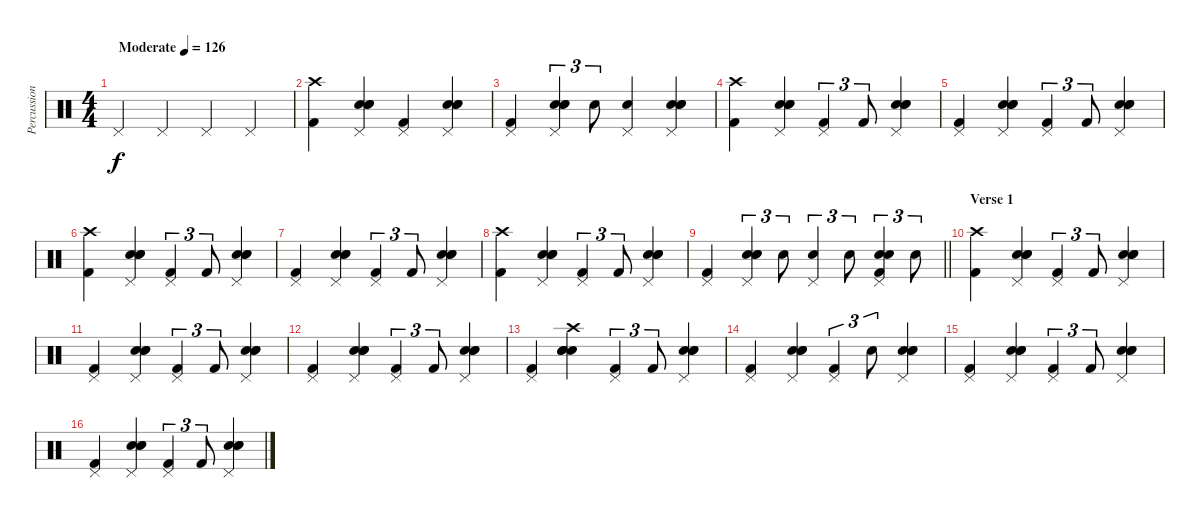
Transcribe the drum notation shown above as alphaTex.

\track ("Percussion" "Percussion") {instrument percussion}
\staff {score}
\articulation defaults
\ts (4 4)
\tempo (126 "Moderate")
\clef neutral
\ks c "Pedal Hi-Hat (hit)".4{dy f} "Pedal Hi-Hat (hit)".4 "Pedal Hi-Hat (hit)".4 "Pedal Hi-Hat (hit)".4
|
("Crash high (hit)" "Kick (hit) 2").4 ("Pedal Hi-Hat (hit)" "Electric Snare (hit)" "Hand Clap (hit)" "Hand Clap (hit)").4 ("Pedal Hi-Hat (hit)" "Kick (hit) 2").4 ("Pedal Hi-Hat (hit)" "Electric Snare (hit)" "Hand Clap (hit)" "Hand Clap (hit)").4 |
("Pedal Hi-Hat (hit)" "Kick (hit) 2").4 ("Pedal Hi-Hat (hit)" "Electric Snare (hit)" "Hand Clap (hit)" "Hand Clap (hit)").4{tu (3 2)} "Electric Snare (hit)".8{tu (3 2)} ("Pedal Hi-Hat (hit)" "Electric Snare (hit)").4 ("Pedal Hi-Hat (hit)" "Electric Snare (hit)" "Hand Clap (hit)" "Hand Clap (hit)").4 |
("Crash high (hit)" "Kick (hit) 2").4 ("Pedal Hi-Hat (hit)" "Electric Snare (hit)" "Hand Clap (hit)" "Hand Clap (hit)").4 ("Pedal Hi-Hat (hit)" "Kick (hit) 2").4{tu (3 2)} "Kick (hit) 2".8{tu (3 2)} ("Pedal Hi-Hat (hit)" "Electric Snare (hit)" "Hand Clap (hit)" "Hand Clap (hit)").4 |
("Pedal Hi-Hat (hit)" "Kick (hit) 2").4 ("Pedal Hi-Hat (hit)" "Electric Snare (hit)" "Hand Clap (hit)" "Hand Clap (hit)").4 ("Pedal Hi-Hat (hit)" "Kick (hit) 2").4{tu (3 2)} "Kick (hit) 2".8{tu (3 2)} ("Pedal Hi-Hat (hit)" "Electric Snare (hit)" "Hand Clap (hit)" "Hand Clap (hit)").4 |
("Crash high (hit)" "Kick (hit) 2").4 ("Pedal Hi-Hat (hit)" "Electric Snare (hit)" "Hand Clap (hit)" "Hand Clap (hit)").4 ("Pedal Hi-Hat (hit)" "Kick (hit) 2").4{tu (3 2)} "Kick (hit) 2".8{tu (3 2)} ("Pedal Hi-Hat (hit)" "Electric Snare (hit)" "Hand Clap (hit)" "Hand Clap (hit)").4 |
("Pedal Hi-Hat (hit)" "Kick (hit) 2").4 ("Pedal Hi-Hat (hit)" "Electric Snare (hit)" "Hand Clap (hit)" "Hand Clap (hit)").4 ("Pedal Hi-Hat (hit)" "Kick (hit) 2").4{tu (3 2)} "Kick (hit) 2".8{tu (3 2)} ("Pedal Hi-Hat (hit)" "Electric Snare (hit)" "Hand Clap (hit)" "Hand Clap (hit)").4 |
("Crash high (hit)" "Kick (hit) 2").4 ("Pedal Hi-Hat (hit)" "Electric Snare (hit)" "Hand Clap (hit)" "Hand Clap (hit)").4 ("Pedal Hi-Hat (hit)" "Kick (hit) 2").4{tu (3 2)} "Kick (hit) 2".8{tu (3 2)} ("Pedal Hi-Hat (hit)" "Electric Snare (hit)" "Hand Clap (hit)" "Hand Clap (hit)").4 |
\barLineRight lightlight
("Pedal Hi-Hat (hit)" "Kick (hit) 2").4 ("Pedal Hi-Hat (hit)" "Electric Snare (hit)" "Hand Clap (hit)" "Hand Clap (hit)").4{tu (3 2)} "Electric Snare (hit)".8{tu (3 2)} ("Pedal Hi-Hat (hit)" "Electric Snare (hit)").4{tu (3 2)} "Electric Snare (hit)".8{tu (3 2)} ("Pedal Hi-Hat (hit)" "Kick (hit) 2" "Hand Clap (hit)" "Hand Clap (hit)").4{tu (3 2)} "Electric Snare (hit)".8{tu (3 2)} |
\section ("" "Verse 1")
("Crash high (hit)" "Kick (hit) 2").4 ("Pedal Hi-Hat (hit)" "Electric Snare (hit)" "Hand Clap (hit)" "Hand Clap (hit)").4 ("Pedal Hi-Hat (hit)" "Kick (hit) 2").4{tu (3 2)} "Kick (hit) 2".8{tu (3 2)} ("Pedal Hi-Hat (hit)" "Electric Snare (hit)" "Hand Clap (hit)" "Hand Clap (hit)").4 |
("Pedal Hi-Hat (hit)" "Kick (hit) 2").4 ("Pedal Hi-Hat (hit)" "Electric Snare (hit)" "Hand Clap (hit)" "Hand Clap (hit)").4 ("Pedal Hi-Hat (hit)" "Kick (hit) 2").4{tu (3 2)} "Kick (hit) 2".8{tu (3 2)} ("Pedal Hi-Hat (hit)" "Electric Snare (hit)" "Hand Clap (hit)" "Hand Clap (hit)").4 |
("Pedal Hi-Hat (hit)" "Kick (hit) 2").4 ("Pedal Hi-Hat (hit)" "Electric Snare (hit)" "Hand Clap (hit)" "Hand Clap (hit)").4 ("Pedal Hi-Hat (hit)" "Kick (hit) 2").4{tu (3 2)} "Kick (hit) 2".8{tu (3 2)} ("Pedal Hi-Hat (hit)" "Electric Snare (hit)" "Hand Clap (hit)" "Hand Clap (hit)").4 |
("Pedal Hi-Hat (hit)" "Kick (hit) 2").4 ("Crash high (hit)" "Electric Snare (hit)" "Hand Clap (hit)" "Hand Clap (hit)").4 ("Pedal Hi-Hat (hit)" "Kick (hit) 2").4{tu (3 2)} "Kick (hit) 2".8{tu (3 2)} ("Pedal Hi-Hat (hit)" "Electric Snare (hit)" "Hand Clap (hit)" "Hand Clap (hit)").4 |
("Pedal Hi-Hat (hit)" "Kick (hit) 2").4 ("Pedal Hi-Hat (hit)" "Electric Snare (hit)" "Hand Clap (hit)" "Hand Clap (hit)").4 ("Pedal Hi-Hat (hit)" "Kick (hit) 2").4{tu (3 2)} "Electric Snare (hit)".8{tu (3 2)} ("Pedal Hi-Hat (hit)" "Electric Snare (hit)" "Hand Clap (hit)" "Hand Clap (hit)").4 |
("Pedal Hi-Hat (hit)" "Kick (hit) 2").4 ("Pedal Hi-Hat (hit)" "Electric Snare (hit)" "Hand Clap (hit)" "Hand Clap (hit)").4 ("Pedal Hi-Hat (hit)" "Kick (hit) 2").4{tu (3 2)} "Kick (hit) 2".8{tu (3 2)} ("Pedal Hi-Hat (hit)" "Electric Snare (hit)" "Hand Clap (hit)" "Hand Clap (hit)").4 |
("Pedal Hi-Hat (hit)" "Kick (hit) 2").4 ("Pedal Hi-Hat (hit)" "Electric Snare (hit)" "Hand Clap (hit)" "Hand Clap (hit)").4 ("Pedal Hi-Hat (hit)" "Kick (hit) 2").4{tu (3 2)} "Kick (hit) 2".8{tu (3 2)} ("Pedal Hi-Hat (hit)" "Electric Snare (hit)" "Hand Clap (hit)" "Hand Clap (hit)").4
